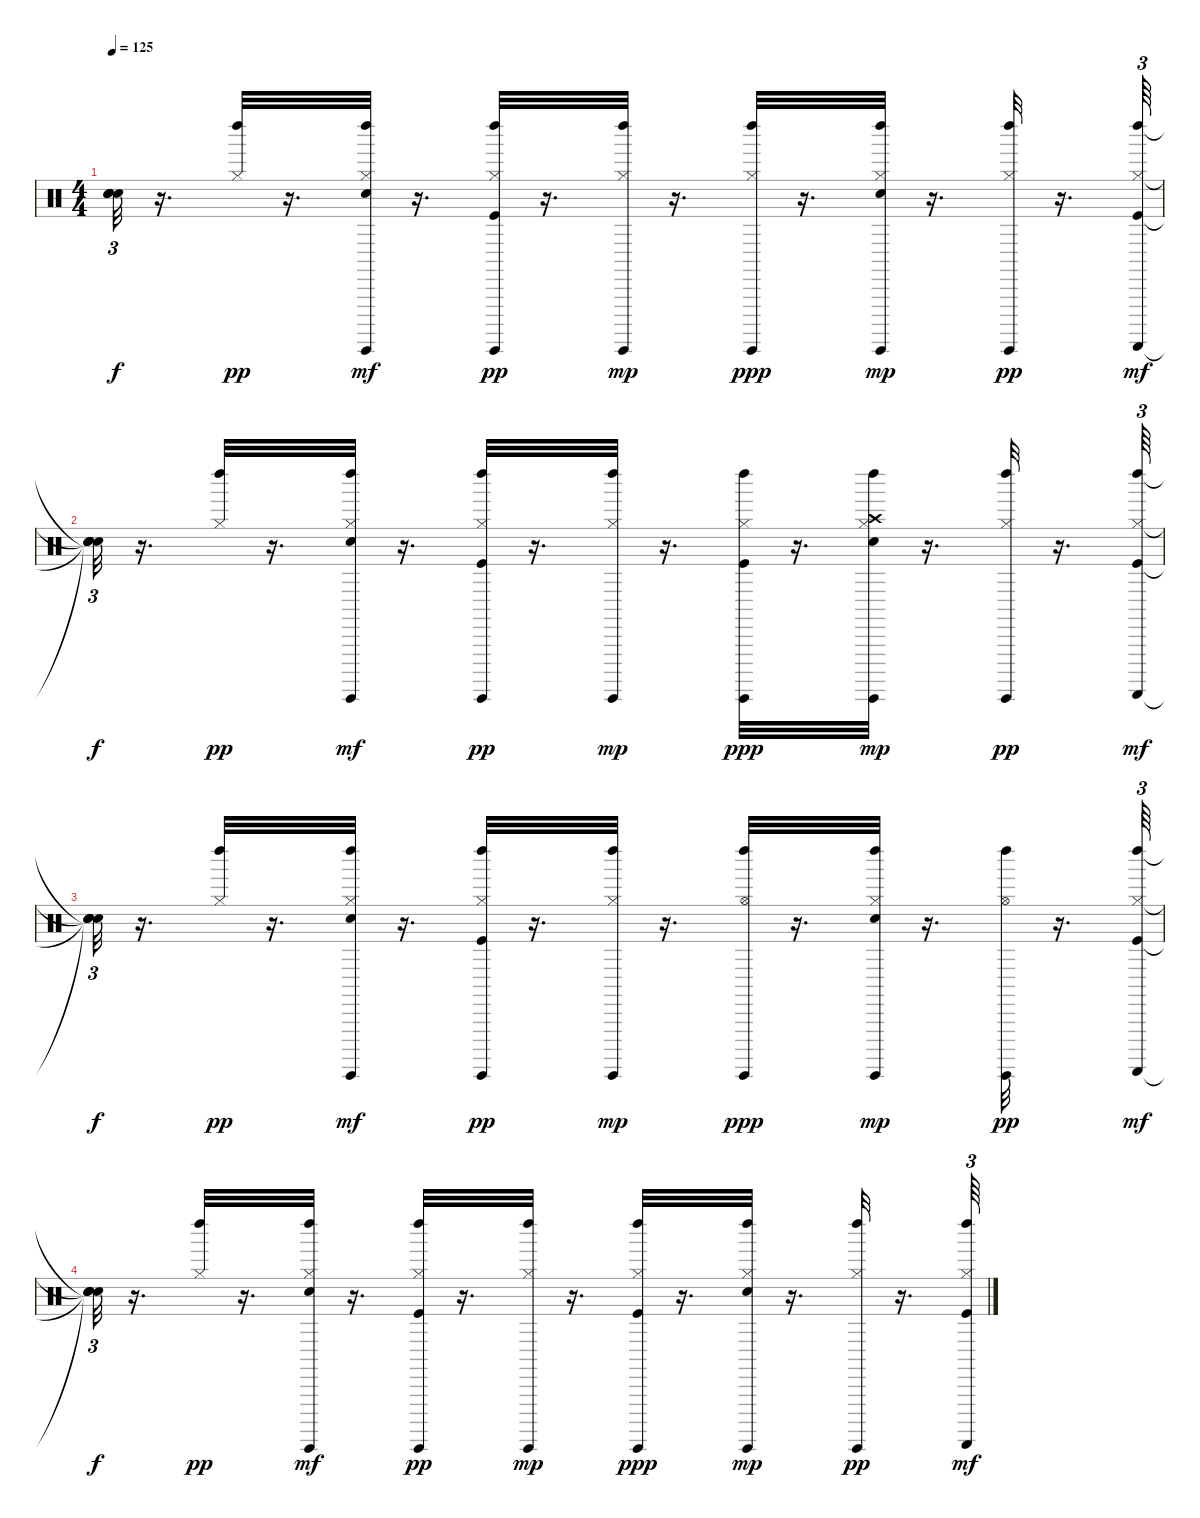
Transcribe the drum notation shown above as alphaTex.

\track "" {instrument percussion}
\staff {score}
\articulation defaults
\ts (4 4)
\tempo 125
\clef neutral
\ks c
("Snare (hit)"{t} "Snare (hit)"{t} "Snare (hit)"{t} "Snare (hit)"{t}).32{tu (3 2) dy f} r.16{d} ("Left Maraca (hit)" "Hi-Hat (closed)").32{dy pp} r.16{d} ("Left Maraca (hit)" "Hi-Hat (closed)" "Electric Snare (hit)" "Guiro (hit)").32{dy mf} r.16{d} ("Hi-Hat (closed)" "Left Maraca (hit)" "Kick (hit)" "Guiro (hit)").32{dy pp} r.16{d} ("Left Maraca (hit)" "Hi-Hat (closed)" "Guiro (hit)").32{dy mp} r.16{d} ("Left Maraca (hit)" "Hi-Hat (closed)" "Guiro (hit)").32{dy ppp} r.16{d} ("Left Maraca (hit)" "Hi-Hat (closed)" "Electric Snare (hit)" "Guiro (hit)").32{dy mp} r.16{d} ("Left Maraca (hit)" "Hi-Hat (closed)" "Guiro (hit)").32{dy pp} r.16{d} ("Hi-Hat (closed)" "Left Maraca (hit)" "Kick (hit)" "Guiro (scrap-return)").64{tu (3 2) dy mf} |
("Snare (hit)"{t} "Snare (hit)"{t} "Snare (hit)"{t} "Snare (hit)"{t}).32{tu (3 2) dy f} r.16{d} ("Left Maraca (hit)" "Hi-Hat (closed)").32{dy pp} r.16{d} ("Left Maraca (hit)" "Electric Snare (hit)" "Hi-Hat (closed)" "Guiro (hit)").32{dy mf} r.16{d} ("Left Maraca (hit)" "Kick (hit)" "Hi-Hat (closed)" "Guiro (hit)").32{dy pp} r.16{d} ("Left Maraca (hit)" "Hi-Hat (closed)" "Guiro (hit)").32{dy mp} r.16{d} ("Hi-Hat (closed)" "Left Maraca (hit)" "Kick (hit)" "Guiro (hit)").32{dy ppp} r.16{d} ("Hi-Hat (closed)" "Electric Snare (hit)" "Crash high (hit)" "Left Maraca (hit)" "Guiro (hit)").32{dy mp} r.16{d} ("Hi-Hat (closed)" "Left Maraca (hit)" "Guiro (hit)").32{dy pp} r.16{d} ("Hi-Hat (closed)" "Left Maraca (hit)" "Kick (hit)" "Guiro (scrap-return)").64{tu (3 2) dy mf} |
("Snare (hit)"{t} "Snare (hit)"{t} "Snare (hit)"{t} "Snare (hit)"{t}).32{tu (3 2) dy f} r.16{d} ("Left Maraca (hit)" "Hi-Hat (closed)").32{dy pp} r.16{d} ("Left Maraca (hit)" "Electric Snare (hit)" "Hi-Hat (closed)" "Guiro (hit)").32{dy mf} r.16{d} ("Kick (hit)" "Hi-Hat (closed)" "Left Maraca (hit)" "Guiro (hit)").32{dy pp} r.16{d} ("Hi-Hat (closed)" "Left Maraca (hit)" "Guiro (hit)").32{dy mp} r.16{d} ("Left Maraca (hit)" "Hi-Hat (open)" "Guiro (hit)").32{dy ppp} r.16{d} ("Electric Snare (hit)" "Hi-Hat (closed)" "Left Maraca (hit)" "Guiro (hit)").32{dy mp} r.16{d} ("Left Maraca (hit)" "Hi-Hat (open)" "Guiro (hit)").32{dy pp} r.16{d} ("Left Maraca (hit)" "Hi-Hat (closed)" "Kick (hit)" "Guiro (scrap-return)").64{tu (3 2) dy mf} |
("Snare (hit)"{t} "Snare (hit)"{t} "Snare (hit)"{t} "Snare (hit)"{t}).32{tu (3 2) dy f} r.16{d} ("Left Maraca (hit)" "Hi-Hat (closed)").32{dy pp} r.16{d} ("Left Maraca (hit)" "Hi-Hat (closed)" "Electric Snare (hit)" "Guiro (hit)").32{dy mf} r.16{d} ("Kick (hit)" "Hi-Hat (closed)" "Left Maraca (hit)" "Guiro (hit)").32{dy pp} r.16{d} ("Hi-Hat (closed)" "Left Maraca (hit)" "Guiro (hit)").32{dy mp} r.16{d} ("Kick (hit)" "Left Maraca (hit)" "Hi-Hat (closed)" "Guiro (hit)").32{dy ppp} r.16{d} ("Hi-Hat (closed)" "Left Maraca (hit)" "Electric Snare (hit)" "Guiro (hit)").32{dy mp} r.16{d} ("Hi-Hat (closed)" "Left Maraca (hit)" "Guiro (hit)").32{dy pp} r.16{d} ("Hi-Hat (closed)" "Left Maraca (hit)" "Kick (hit)" "Guiro (scrap-return)").64{tu (3 2) dy mf}
